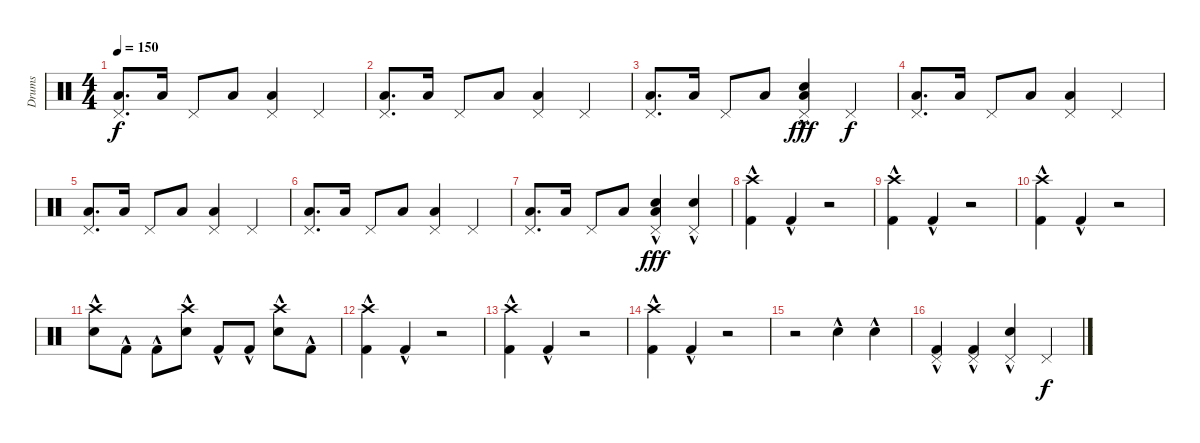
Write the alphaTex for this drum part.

\track ("Drums" "Drums") {instrument percussion}
\staff {score}
\articulation defaults
\ts (4 4)
\tempo 150
\clef neutral
\ks c
("Pedal Hi-Hat (hit)" "Low Floor Tom (hit)").8{d dy f} "Low Floor Tom (hit)".16 "Pedal Hi-Hat (hit)".8 "Low Floor Tom (hit)".8 ("Pedal Hi-Hat (hit)" "Low Floor Tom (hit)").4 "Pedal Hi-Hat (hit)".4 |
("Pedal Hi-Hat (hit)" "Low Floor Tom (hit)").8{d} "Low Floor Tom (hit)".16 "Pedal Hi-Hat (hit)".8 "Low Floor Tom (hit)".8 ("Pedal Hi-Hat (hit)" "Low Floor Tom (hit)").4 "Pedal Hi-Hat (hit)".4 |
("Pedal Hi-Hat (hit)" "Low Floor Tom (hit)").8{d} "Low Floor Tom (hit)".16 "Pedal Hi-Hat (hit)".8 "Low Floor Tom (hit)".8 ("Pedal Hi-Hat (hit)" "Electric Snare (hit)"{hac} "Low Floor Tom (hit)").4{dy fff} "Pedal Hi-Hat (hit)".4{dy f} |
("Pedal Hi-Hat (hit)" "Low Floor Tom (hit)").8{d} "Low Floor Tom (hit)".16 "Pedal Hi-Hat (hit)".8 "Low Floor Tom (hit)".8 ("Pedal Hi-Hat (hit)" "Low Floor Tom (hit)").4 "Pedal Hi-Hat (hit)".4 |
("Pedal Hi-Hat (hit)" "Low Floor Tom (hit)").8{d} "Low Floor Tom (hit)".16 "Pedal Hi-Hat (hit)".8 "Low Floor Tom (hit)".8 ("Pedal Hi-Hat (hit)" "Low Floor Tom (hit)").4 "Pedal Hi-Hat (hit)".4 |
("Pedal Hi-Hat (hit)" "Low Floor Tom (hit)").8{d} "Low Floor Tom (hit)".16 "Pedal Hi-Hat (hit)".8 "Low Floor Tom (hit)".8 ("Pedal Hi-Hat (hit)" "Low Floor Tom (hit)").4 "Pedal Hi-Hat (hit)".4 |
("Pedal Hi-Hat (hit)" "Low Floor Tom (hit)").8{d} "Low Floor Tom (hit)".16 "Pedal Hi-Hat (hit)".8 "Low Floor Tom (hit)".8 ("Pedal Hi-Hat (hit)" "Electric Snare (hit)"{hac} "Low Floor Tom (hit)").4{dy fff} ("Pedal Hi-Hat (hit)" "Electric Snare (hit)"{hac}).4 |
("Crash high (hit)" "Kick (hit) 2"{hac}).4 "Kick (hit) 2"{hac}.4 r.2 |
("Crash high (hit)" "Kick (hit) 2"{hac}).4 "Kick (hit) 2"{hac}.4 r.2 |
("Crash high (hit)" "Kick (hit) 2"{hac}).4 "Kick (hit) 2"{hac}.4 r.2 |
("Crash high (hit)" "Electric Snare (hit)"{hac}).8 "Kick (hit) 2"{hac}.8 "Kick (hit) 2"{hac}.8 ("Crash high (hit)" "Electric Snare (hit)"{hac}).8 "Kick (hit) 2"{hac}.8 "Kick (hit) 2"{hac}.8 ("Crash high (hit)" "Electric Snare (hit)"{hac}).8 "Kick (hit) 2"{hac}.8 |
("Crash high (hit)" "Kick (hit) 2"{hac}).4 "Kick (hit) 2"{hac}.4 r.2 |
("Crash high (hit)" "Kick (hit) 2"{hac}).4 "Kick (hit) 2"{hac}.4 r.2 |
("Crash high (hit)" "Kick (hit) 2"{hac}).4 "Kick (hit) 2"{hac}.4 r.2 |
r.2 "Electric Snare (hit)"{hac}.4 "Electric Snare (hit)"{hac}.4 |
("Pedal Hi-Hat (hit)" "Kick (hit) 2"{hac}).4 ("Pedal Hi-Hat (hit)" "Kick (hit) 2"{hac}).4 ("Pedal Hi-Hat (hit)" "Electric Snare (hit)"{hac}).4 "Pedal Hi-Hat (hit)".4{dy f}
